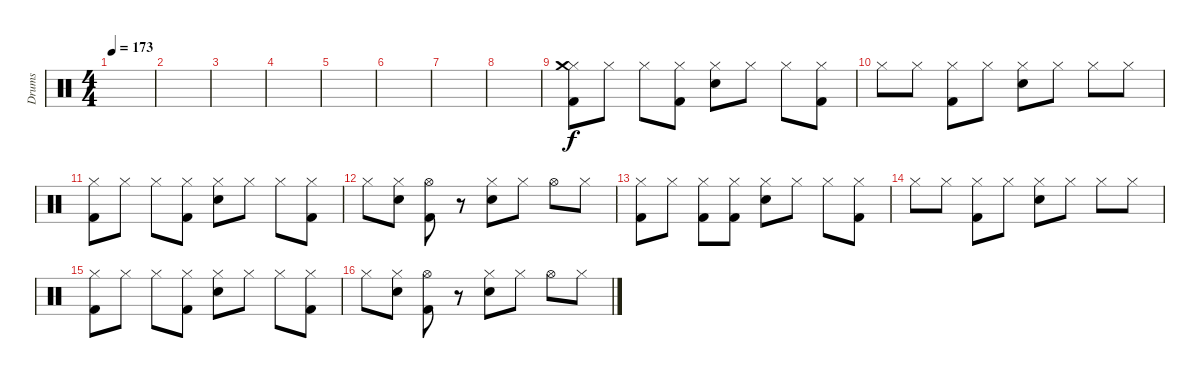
\track ("Drums" "Drums") {instrument percussion}
\staff {score}
\articulation defaults
\ts (4 4)
\tempo 173
\clef neutral
\ks c
|
|
|
|
|
|
|
|
("Hi-Hat (closed)" "Kick (hit) 2" "Crash medium (hit)").8 "Hi-Hat (closed)".8 "Hi-Hat (closed)".8 ("Hi-Hat (closed)" "Kick (hit) 2").8 ("Hi-Hat (closed)" "Electric Snare (hit)").8 "Hi-Hat (closed)".8 "Hi-Hat (closed)".8 ("Hi-Hat (closed)" "Kick (hit) 2").8 |
"Hi-Hat (closed)".8 "Hi-Hat (closed)".8 ("Hi-Hat (closed)" "Kick (hit) 2").8 "Hi-Hat (closed)".8 ("Hi-Hat (closed)" "Electric Snare (hit)").8 "Hi-Hat (closed)".8 "Hi-Hat (closed)".8 "Hi-Hat (closed)".8 |
("Hi-Hat (closed)" "Kick (hit) 2").8 "Hi-Hat (closed)".8 "Hi-Hat (closed)".8 ("Hi-Hat (closed)" "Kick (hit) 2").8 ("Hi-Hat (closed)" "Electric Snare (hit)").8 "Hi-Hat (closed)".8 "Hi-Hat (closed)".8 ("Hi-Hat (closed)" "Kick (hit) 2").8 |
"Hi-Hat (closed)".8 ("Hi-Hat (closed)" "Electric Snare (hit)").8 ("Hi-Hat (open)" "Kick (hit) 2").8 r.8 ("Hi-Hat (closed)" "Electric Snare (hit)").8 "Hi-Hat (closed)".8 "Hi-Hat (open)".8 "Hi-Hat (closed)".8 |
("Hi-Hat (closed)" "Kick (hit) 2").8 "Hi-Hat (closed)".8 ("Hi-Hat (closed)" "Kick (hit) 2").8 ("Hi-Hat (closed)" "Kick (hit) 2").8 ("Hi-Hat (closed)" "Electric Snare (hit)").8 "Hi-Hat (closed)".8 "Hi-Hat (closed)".8 ("Hi-Hat (closed)" "Kick (hit) 2").8 |
"Hi-Hat (closed)".8 "Hi-Hat (closed)".8 ("Hi-Hat (closed)" "Kick (hit) 2").8 "Hi-Hat (closed)".8 ("Hi-Hat (closed)" "Electric Snare (hit)").8 "Hi-Hat (closed)".8 "Hi-Hat (closed)".8 "Hi-Hat (closed)".8 |
("Hi-Hat (closed)" "Kick (hit) 2").8 "Hi-Hat (closed)".8 "Hi-Hat (closed)".8 ("Hi-Hat (closed)" "Kick (hit) 2").8 ("Hi-Hat (closed)" "Electric Snare (hit)").8 "Hi-Hat (closed)".8 "Hi-Hat (closed)".8 ("Hi-Hat (closed)" "Kick (hit) 2").8 |
"Hi-Hat (closed)".8 ("Hi-Hat (closed)" "Electric Snare (hit)").8 ("Hi-Hat (open)" "Kick (hit) 2").8 r.8 ("Hi-Hat (closed)" "Electric Snare (hit)").8 "Hi-Hat (closed)".8 "Hi-Hat (open)".8 "Hi-Hat (closed)".8
